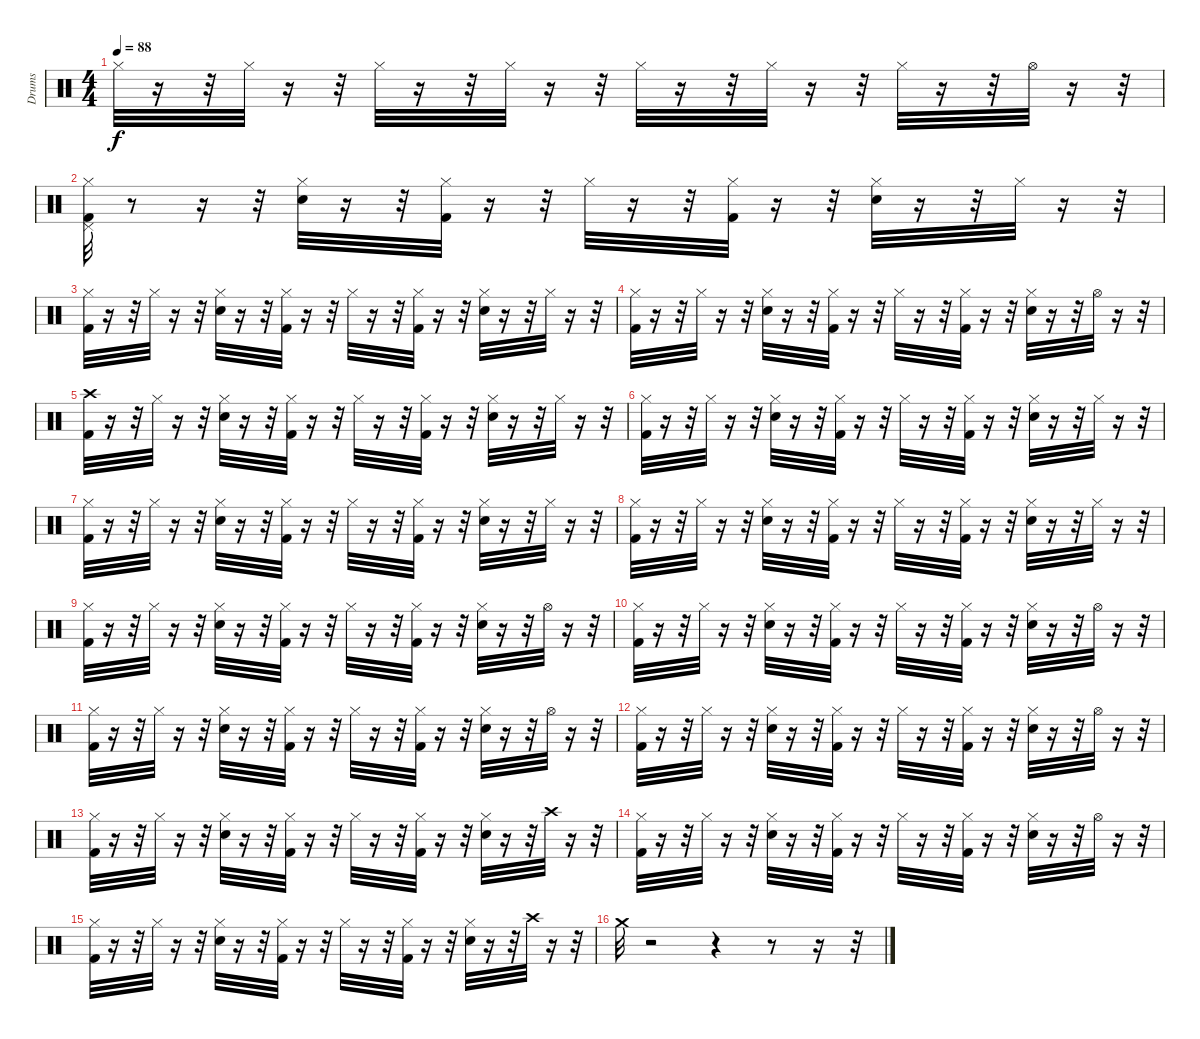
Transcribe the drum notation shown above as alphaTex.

\track ("Drums" "Drums") {instrument percussion}
\staff {score}
\articulation defaults
\ts (4 4)
\tempo 88
\clef neutral
\ks c "Hi-Hat (closed)".32{dy f}
r.16 r.32 "Hi-Hat (closed)".32 r.16 r.32 "Hi-Hat (closed)".32 r.16 r.32 "Hi-Hat (closed)".32 r.16 r.32 "Hi-Hat (closed)".32 r.16 r.32 "Hi-Hat (closed)".32 r.16 r.32 "Hi-Hat (closed)".32 r.16 r.32 "Hi-Hat (open)".32 r.16 r.32 |
("Hi-Hat (closed)" "Pedal Hi-Hat (hit)" "Kick (hit) 2").32 r.8 r.16 r.32 ("Hi-Hat (closed)" "Electric Snare (hit)").32 r.16 r.32 ("Kick (hit) 2" "Hi-Hat (closed)").32 r.16 r.32 "Hi-Hat (closed)".32 r.16 r.32 ("Kick (hit) 2" "Hi-Hat (closed)").32 r.16 r.32 ("Hi-Hat (closed)" "Electric Snare (hit)").32 r.16 r.32 "Hi-Hat (closed)".32 r.16 r.32 |
("Hi-Hat (closed)" "Kick (hit) 2").32 r.16 r.32 "Hi-Hat (closed)".32 r.16 r.32 ("Hi-Hat (closed)" "Electric Snare (hit)").32 r.16 r.32 ("Kick (hit) 2" "Hi-Hat (closed)").32 r.16 r.32 "Hi-Hat (closed)".32 r.16 r.32 ("Kick (hit) 2" "Hi-Hat (closed)").32 r.16 r.32 ("Hi-Hat (closed)" "Electric Snare (hit)").32 r.16 r.32 "Hi-Hat (closed)".32 r.16 r.32 |
("Hi-Hat (closed)" "Kick (hit) 2").32 r.16 r.32 "Hi-Hat (closed)".32 r.16 r.32 ("Hi-Hat (closed)" "Electric Snare (hit)").32 r.16 r.32 ("Kick (hit) 2" "Hi-Hat (closed)").32 r.16 r.32 "Hi-Hat (closed)".32 r.16 r.32 ("Kick (hit) 2" "Hi-Hat (closed)").32 r.16 r.32 ("Hi-Hat (closed)" "Electric Snare (hit)").32 r.16 r.32 "Hi-Hat (open)".32 r.16 r.32 |
("Crash high (hit)" "Kick (hit) 2").32 r.16 r.32 "Hi-Hat (closed)".32 r.16 r.32 ("Hi-Hat (closed)" "Electric Snare (hit)").32 r.16 r.32 ("Kick (hit) 2" "Hi-Hat (closed)").32 r.16 r.32 "Hi-Hat (closed)".32 r.16 r.32 ("Kick (hit) 2" "Hi-Hat (closed)").32 r.16 r.32 ("Hi-Hat (closed)" "Electric Snare (hit)").32 r.16 r.32 "Hi-Hat (closed)".32 r.16 r.32 |
("Hi-Hat (closed)" "Kick (hit) 2").32 r.16 r.32 "Hi-Hat (closed)".32 r.16 r.32 ("Hi-Hat (closed)" "Electric Snare (hit)").32 r.16 r.32 ("Kick (hit) 2" "Hi-Hat (closed)").32 r.16 r.32 "Hi-Hat (closed)".32 r.16 r.32 ("Kick (hit) 2" "Hi-Hat (closed)").32 r.16 r.32 ("Hi-Hat (closed)" "Electric Snare (hit)").32 r.16 r.32 "Hi-Hat (closed)".32 r.16 r.32 |
("Hi-Hat (closed)" "Kick (hit) 2").32 r.16 r.32 "Hi-Hat (closed)".32 r.16 r.32 ("Hi-Hat (closed)" "Electric Snare (hit)").32 r.16 r.32 ("Kick (hit) 2" "Hi-Hat (closed)").32 r.16 r.32 "Hi-Hat (closed)".32 r.16 r.32 ("Kick (hit) 2" "Hi-Hat (closed)").32 r.16 r.32 ("Hi-Hat (closed)" "Electric Snare (hit)").32 r.16 r.32 "Hi-Hat (closed)".32 r.16 r.32 |
("Hi-Hat (closed)" "Kick (hit) 2").32 r.16 r.32 "Hi-Hat (closed)".32 r.16 r.32 ("Hi-Hat (closed)" "Electric Snare (hit)").32 r.16 r.32 ("Kick (hit) 2" "Hi-Hat (closed)").32 r.16 r.32 "Hi-Hat (closed)".32 r.16 r.32 ("Kick (hit) 2" "Hi-Hat (closed)").32 r.16 r.32 ("Hi-Hat (closed)" "Electric Snare (hit)").32 r.16 r.32 "Hi-Hat (closed)".32 r.16 r.32 |
("Hi-Hat (closed)" "Kick (hit) 2").32 r.16 r.32 "Hi-Hat (closed)".32 r.16 r.32 ("Hi-Hat (closed)" "Electric Snare (hit)").32 r.16 r.32 ("Kick (hit) 2" "Hi-Hat (closed)").32 r.16 r.32 "Hi-Hat (closed)".32 r.16 r.32 ("Kick (hit) 2" "Hi-Hat (closed)").32 r.16 r.32 ("Hi-Hat (closed)" "Electric Snare (hit)").32 r.16 r.32 "Hi-Hat (open)".32 r.16 r.32 |
("Hi-Hat (closed)" "Kick (hit) 2").32 r.16 r.32 "Hi-Hat (closed)".32 r.16 r.32 ("Hi-Hat (closed)" "Electric Snare (hit)").32 r.16 r.32 ("Kick (hit) 2" "Hi-Hat (closed)").32 r.16 r.32 "Hi-Hat (closed)".32 r.16 r.32 ("Kick (hit) 2" "Hi-Hat (closed)").32 r.16 r.32 ("Hi-Hat (closed)" "Electric Snare (hit)").32 r.16 r.32 "Hi-Hat (open)".32 r.16 r.32 |
("Hi-Hat (closed)" "Kick (hit) 2").32 r.16 r.32 "Hi-Hat (closed)".32 r.16 r.32 ("Hi-Hat (closed)" "Electric Snare (hit)").32 r.16 r.32 ("Kick (hit) 2" "Hi-Hat (closed)").32 r.16 r.32 "Hi-Hat (closed)".32 r.16 r.32 ("Kick (hit) 2" "Hi-Hat (closed)").32 r.16 r.32 ("Hi-Hat (closed)" "Electric Snare (hit)").32 r.16 r.32 "Hi-Hat (open)".32 r.16 r.32 |
("Hi-Hat (closed)" "Kick (hit) 2").32 r.16 r.32 "Hi-Hat (closed)".32 r.16 r.32 ("Hi-Hat (closed)" "Electric Snare (hit)").32 r.16 r.32 ("Kick (hit) 2" "Hi-Hat (closed)").32 r.16 r.32 "Hi-Hat (closed)".32 r.16 r.32 ("Kick (hit) 2" "Hi-Hat (closed)").32 r.16 r.32 ("Hi-Hat (closed)" "Electric Snare (hit)").32 r.16 r.32 "Hi-Hat (open)".32 r.16 r.32 |
("Hi-Hat (closed)" "Kick (hit) 2").32 r.16 r.32 "Hi-Hat (closed)".32 r.16 r.32 ("Hi-Hat (closed)" "Electric Snare (hit)").32 r.16 r.32 ("Kick (hit) 2" "Hi-Hat (closed)").32 r.16 r.32 "Hi-Hat (closed)".32 r.16 r.32 ("Kick (hit) 2" "Hi-Hat (closed)").32 r.16 r.32 ("Hi-Hat (closed)" "Electric Snare (hit)").32 r.16 r.32 "Crash high (hit)".32 r.16 r.32 |
("Hi-Hat (closed)" "Kick (hit) 2").32 r.16 r.32 "Hi-Hat (closed)".32 r.16 r.32 ("Hi-Hat (closed)" "Electric Snare (hit)").32 r.16 r.32 ("Kick (hit) 2" "Hi-Hat (closed)").32 r.16 r.32 "Hi-Hat (closed)".32 r.16 r.32 ("Kick (hit) 2" "Hi-Hat (closed)").32 r.16 r.32 ("Hi-Hat (closed)" "Electric Snare (hit)").32 r.16 r.32 "Hi-Hat (open)".32 r.16 r.32 |
("Hi-Hat (closed)" "Kick (hit) 2").32 r.16 r.32 "Hi-Hat (closed)".32 r.16 r.32 ("Hi-Hat (closed)" "Electric Snare (hit)").32 r.16 r.32 ("Kick (hit) 2" "Hi-Hat (closed)").32 r.16 r.32 "Hi-Hat (closed)".32 r.16 r.32 ("Kick (hit) 2" "Hi-Hat (closed)").32 r.16 r.32 ("Hi-Hat (closed)" "Electric Snare (hit)").32 r.16 r.32 "Crash high (hit)".32 r.16 r.32 |
"Crash medium (hit)".32 r.2 r.4 r.8 r.16 r.32
